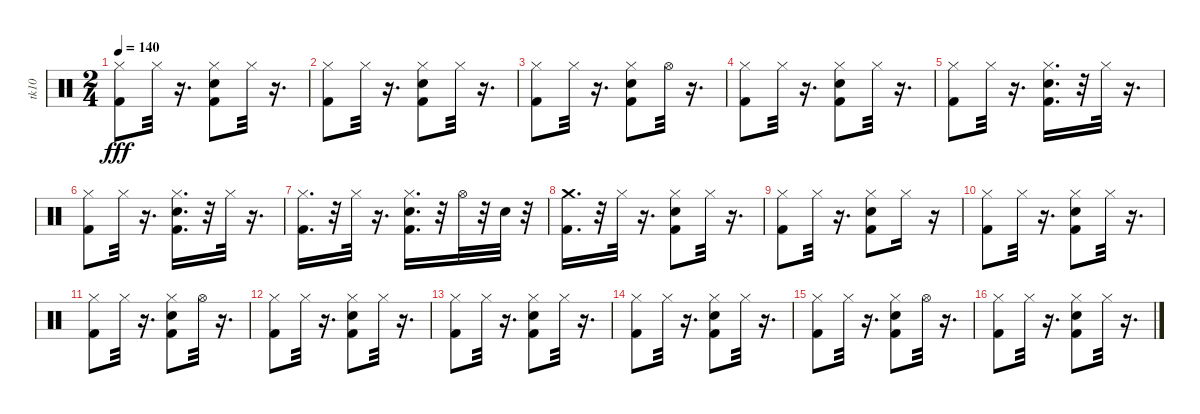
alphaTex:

\track ("tk10" "tk10") {instrument percussion}
\staff {score}
\articulation defaults
\ts (2 4)
\tempo 140
\clef neutral
\ks c
("Kick (hit) 2" "Hi-Hat (closed)").8{dy fff} "Hi-Hat (closed)".32 r.16{d} ("Snare (hit) 2" "Kick (hit) 2" "Hi-Hat (closed)").8 "Hi-Hat (closed)".32 r.16{d} |
("Kick (hit) 2" "Hi-Hat (closed)").8 "Hi-Hat (closed)".32 r.16{d} ("Snare (hit) 2" "Kick (hit) 2" "Hi-Hat (closed)").8 "Hi-Hat (closed)".32 r.16{d} |
("Kick (hit) 2" "Hi-Hat (closed)").8 "Hi-Hat (closed)".32 r.16{d} ("Snare (hit) 2" "Kick (hit) 2" "Hi-Hat (closed)").8 "Hi-Hat (open)".32 r.16{d} |
("Kick (hit) 2" "Hi-Hat (closed)").8 "Hi-Hat (closed)".32 r.16{d} ("Snare (hit) 2" "Kick (hit) 2" "Hi-Hat (closed)").8 "Hi-Hat (closed)".32 r.16{d} |
("Kick (hit) 2" "Hi-Hat (closed)").8 "Hi-Hat (closed)".32 r.16{d} ("Snare (hit) 2" "Kick (hit) 2" "Hi-Hat (closed)").16{d} r.32 "Hi-Hat (closed)".32 r.16{d} |
("Kick (hit) 2" "Hi-Hat (closed)").8 "Hi-Hat (closed)".32 r.16{d} ("Hi-Hat (closed)" "Snare (hit) 2" "Kick (hit) 2").16{d} r.32 "Hi-Hat (closed)".32 r.16{d} |
("Kick (hit) 2" "Hi-Hat (closed)").16{d} r.32 "Hi-Hat (closed)".32 r.16{d} ("Snare (hit) 2" "Kick (hit) 2" "Hi-Hat (closed)").16{d} r.32 "Hi-Hat (open)".32 r.32 "Snare (hit) 2".32 r.32 |
("Kick (hit) 2" "Crash medium (hit)").16{d} r.32 "Hi-Hat (closed)".32 r.16{d} ("Kick (hit) 2" "Snare (hit) 2" "Hi-Hat (closed)").8 "Hi-Hat (closed)".32 r.16{d} |
("Kick (hit) 2" "Hi-Hat (closed)").8 "Hi-Hat (closed)".32 r.16{d} ("Snare (hit) 2" "Kick (hit) 2" "Hi-Hat (closed)").8 "Hi-Hat (closed)".16 r.16 |
("Kick (hit) 2" "Hi-Hat (closed)").8 "Hi-Hat (closed)".32 r.16{d} ("Snare (hit) 2" "Kick (hit) 2" "Hi-Hat (closed)").8 "Hi-Hat (closed)".32 r.16{d} |
("Kick (hit) 2" "Hi-Hat (closed)").8 "Hi-Hat (closed)".32 r.16{d} ("Kick (hit) 2" "Snare (hit) 2" "Hi-Hat (closed)").8 "Hi-Hat (open)".32 r.16{d} |
("Kick (hit) 2" "Hi-Hat (closed)").8 "Hi-Hat (closed)".32 r.16{d} ("Snare (hit) 2" "Kick (hit) 2" "Hi-Hat (closed)").8 "Hi-Hat (closed)".32 r.16{d} |
("Kick (hit) 2" "Hi-Hat (closed)").8 "Hi-Hat (closed)".32 r.16{d} ("Hi-Hat (closed)" "Snare (hit) 2" "Kick (hit) 2").8 "Hi-Hat (closed)".32 r.16{d} |
("Kick (hit) 2" "Hi-Hat (closed)").8 "Hi-Hat (closed)".32 r.16{d} ("Snare (hit) 2" "Kick (hit) 2" "Hi-Hat (closed)").8 "Hi-Hat (closed)".32 r.16{d} |
("Kick (hit) 2" "Hi-Hat (closed)").8 "Hi-Hat (closed)".32 r.16{d} ("Hi-Hat (closed)" "Kick (hit) 2" "Snare (hit) 2").8 "Hi-Hat (open)".32 r.16{d} |
("Kick (hit) 2" "Hi-Hat (closed)").8 "Hi-Hat (closed)".32 r.16{d} ("Kick (hit) 2" "Hi-Hat (closed)" "Snare (hit) 2").8 "Hi-Hat (closed)".32 r.16{d}
